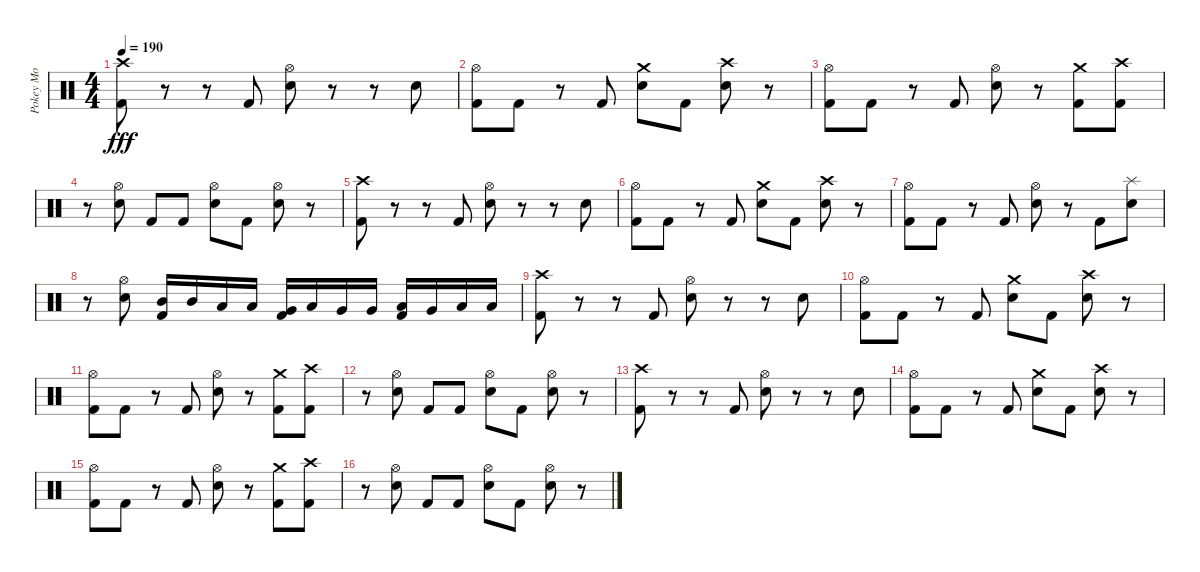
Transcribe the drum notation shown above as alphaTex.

\track ("Pokey Mo" "Pokey Mo") {instrument percussion}
\staff {score}
\articulation defaults
\ts (4 4)
\tempo 190
\clef neutral
\ks c
("Crash high (hit)" "Kick (hit) 2").8{dy fff} r.8 r.8 "Kick (hit) 2".8 ("Hi-Hat (open)" "Electric Snare (hit)").8 r.8 r.8 "Electric Snare (hit)".8 |
("Hi-Hat (open)" "Kick (hit) 2").8 "Kick (hit) 2".8 r.8 "Kick (hit) 2".8 ("Crash medium (hit)" "Electric Snare (hit)").8 "Kick (hit) 2".8 ("Crash high (hit)" "Electric Snare (hit)").8 r.8 |
("Hi-Hat (open)" "Kick (hit) 2").8 "Kick (hit) 2".8 r.8 "Kick (hit) 2".8 ("Hi-Hat (open)" "Electric Snare (hit)").8 r.8 ("Crash medium (hit)" "Kick (hit) 2").8 ("Crash high (hit)" "Kick (hit) 2").8 |
r.8 ("Hi-Hat (open)" "Electric Snare (hit)").8 "Kick (hit) 2".8 "Kick (hit) 2".8 ("Hi-Hat (open)" "Electric Snare (hit)").8 "Kick (hit) 2".8 ("Hi-Hat (open)" "Electric Snare (hit)").8 r.8 |
("Crash high (hit)" "Kick (hit) 2").8 r.8 r.8 "Kick (hit) 2".8 ("Hi-Hat (open)" "Electric Snare (hit)").8 r.8 r.8 "Electric Snare (hit)".8 |
("Hi-Hat (open)" "Kick (hit) 2").8 "Kick (hit) 2".8 r.8 "Kick (hit) 2".8 ("Crash medium (hit)" "Electric Snare (hit)").8 "Kick (hit) 2".8 ("Crash high (hit)" "Electric Snare (hit)").8 r.8 |
("Hi-Hat (open)" "Kick (hit) 2").8 "Kick (hit) 2".8 r.8 "Kick (hit) 2".8 ("Hi-Hat (open)" "Electric Snare (hit)").8 r.8 "Kick (hit) 2".8 ("Splash (hit)" "Electric Snare (hit)").8 |
r.8 ("Hi-Hat (open)" "Electric Snare (hit)").8 ("Mid Tom (hit)" "Kick (hit) 2").16 "Mid Tom (hit)".16 "Low Tom (hit)".16 "Low Tom (hit)".16 ("Very Low Tom (hit)" "Kick (hit) 2").16 "Low Tom (hit)".16 "Very Low Tom (hit)".16 "Very Low Tom (hit)".16 ("Low Floor Tom (hit)" "Kick (hit) 2").16 "Very Low Tom (hit)".16 "Low Floor Tom (hit)".16 "Low Floor Tom (hit)".16 |
("Crash high (hit)" "Kick (hit) 2").8 r.8 r.8 "Kick (hit) 2".8 ("Hi-Hat (open)" "Electric Snare (hit)").8 r.8 r.8 "Electric Snare (hit)".8 |
("Hi-Hat (open)" "Kick (hit) 2").8 "Kick (hit) 2".8 r.8 "Kick (hit) 2".8 ("Crash medium (hit)" "Electric Snare (hit)").8 "Kick (hit) 2".8 ("Crash high (hit)" "Electric Snare (hit)").8 r.8 |
("Hi-Hat (open)" "Kick (hit) 2").8 "Kick (hit) 2".8 r.8 "Kick (hit) 2".8 ("Hi-Hat (open)" "Electric Snare (hit)").8 r.8 ("Crash medium (hit)" "Kick (hit) 2").8 ("Crash high (hit)" "Kick (hit) 2").8 |
r.8 ("Hi-Hat (open)" "Electric Snare (hit)").8 "Kick (hit) 2".8 "Kick (hit) 2".8 ("Hi-Hat (open)" "Electric Snare (hit)").8 "Kick (hit) 2".8 ("Hi-Hat (open)" "Electric Snare (hit)").8 r.8 |
("Crash high (hit)" "Kick (hit) 2").8 r.8 r.8 "Kick (hit) 2".8 ("Hi-Hat (open)" "Electric Snare (hit)").8 r.8 r.8 "Electric Snare (hit)".8 |
("Hi-Hat (open)" "Kick (hit) 2").8 "Kick (hit) 2".8 r.8 "Kick (hit) 2".8 ("Crash medium (hit)" "Electric Snare (hit)").8 "Kick (hit) 2".8 ("Crash high (hit)" "Electric Snare (hit)").8 r.8 |
("Hi-Hat (open)" "Kick (hit) 2").8 "Kick (hit) 2".8 r.8 "Kick (hit) 2".8 ("Hi-Hat (open)" "Electric Snare (hit)").8 r.8 ("Crash medium (hit)" "Kick (hit) 2").8 ("Crash high (hit)" "Kick (hit) 2").8 |
r.8 ("Hi-Hat (open)" "Electric Snare (hit)").8 "Kick (hit) 2".8 "Kick (hit) 2".8 ("Hi-Hat (open)" "Electric Snare (hit)").8 "Kick (hit) 2".8 ("Hi-Hat (open)" "Electric Snare (hit)").8 r.8
